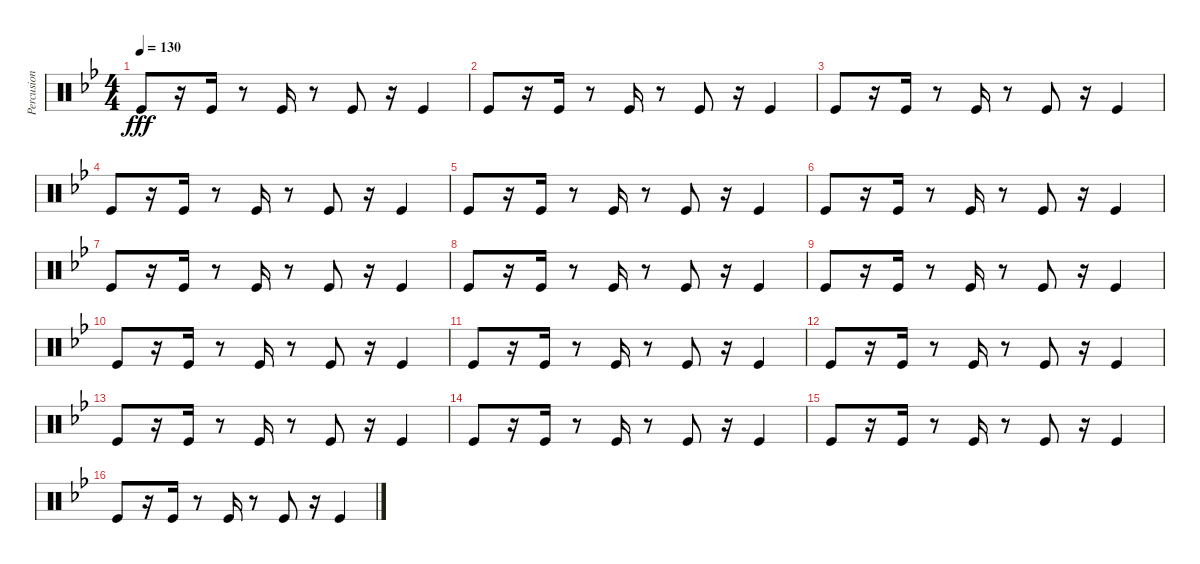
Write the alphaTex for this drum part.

\track ("Percusion II" "Percusion ") {instrument percussion}
\staff {score}
\articulation defaults
\ts (4 4)
\tempo 130
\clef neutral
\ks gminor "Kick (hit)".8{dy fff}
r.16 "Kick (hit)".16 r.8 "Kick (hit)".16 r.8 "Kick (hit)".8 r.16 "Kick (hit)".4 |
"Kick (hit)".8 r.16 "Kick (hit)".16 r.8 "Kick (hit)".16 r.8 "Kick (hit)".8 r.16 "Kick (hit)".4 |
"Kick (hit)".8 r.16 "Kick (hit)".16 r.8 "Kick (hit)".16 r.8 "Kick (hit)".8 r.16 "Kick (hit)".4 |
"Kick (hit)".8 r.16 "Kick (hit)".16 r.8 "Kick (hit)".16 r.8 "Kick (hit)".8 r.16 "Kick (hit)".4 |
"Kick (hit)".8 r.16 "Kick (hit)".16 r.8 "Kick (hit)".16 r.8 "Kick (hit)".8 r.16 "Kick (hit)".4 |
"Kick (hit)".8 r.16 "Kick (hit)".16 r.8 "Kick (hit)".16 r.8 "Kick (hit)".8 r.16 "Kick (hit)".4 |
"Kick (hit)".8 r.16 "Kick (hit)".16 r.8 "Kick (hit)".16 r.8 "Kick (hit)".8 r.16 "Kick (hit)".4 |
"Kick (hit)".8 r.16 "Kick (hit)".16 r.8 "Kick (hit)".16 r.8 "Kick (hit)".8 r.16 "Kick (hit)".4 |
"Kick (hit)".8 r.16 "Kick (hit)".16 r.8 "Kick (hit)".16 r.8 "Kick (hit)".8 r.16 "Kick (hit)".4 |
"Kick (hit)".8 r.16 "Kick (hit)".16 r.8 "Kick (hit)".16 r.8 "Kick (hit)".8 r.16 "Kick (hit)".4 |
"Kick (hit)".8 r.16 "Kick (hit)".16 r.8 "Kick (hit)".16 r.8 "Kick (hit)".8 r.16 "Kick (hit)".4 |
"Kick (hit)".8 r.16 "Kick (hit)".16 r.8 "Kick (hit)".16 r.8 "Kick (hit)".8 r.16 "Kick (hit)".4 |
"Kick (hit)".8 r.16 "Kick (hit)".16 r.8 "Kick (hit)".16 r.8 "Kick (hit)".8 r.16 "Kick (hit)".4 |
"Kick (hit)".8 r.16 "Kick (hit)".16 r.8 "Kick (hit)".16 r.8 "Kick (hit)".8 r.16 "Kick (hit)".4 |
"Kick (hit)".8 r.16 "Kick (hit)".16 r.8 "Kick (hit)".16 r.8 "Kick (hit)".8 r.16 "Kick (hit)".4 |
"Kick (hit)".8 r.16 "Kick (hit)".16 r.8 "Kick (hit)".16 r.8 "Kick (hit)".8 r.16 "Kick (hit)".4
